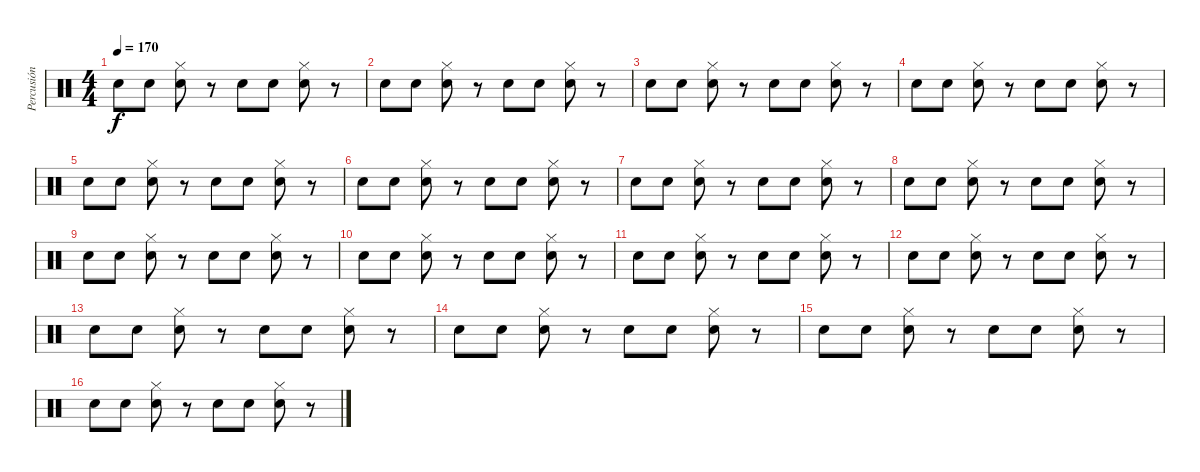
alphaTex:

\track ("Percusión" "Percusión") {instrument percussion}
\staff {score}
\articulation defaults
\ts (4 4)
\tempo 170
\clef neutral
\ks c "Electric Snare (hit)".8{dy f} "Electric Snare (hit)".8
("Hi-Hat (closed)" "Snare (hit) 2").8 r.8 "Electric Snare (hit)".8 "Electric Snare (hit)".8 ("Hi-Hat (closed)" "Snare (hit) 2").8 r.8 |
"Electric Snare (hit)".8 "Electric Snare (hit)".8 ("Hi-Hat (closed)" "Snare (hit) 2").8 r.8 "Electric Snare (hit)".8 "Electric Snare (hit)".8 ("Hi-Hat (closed)" "Snare (hit) 2").8 r.8 |
"Electric Snare (hit)".8 "Electric Snare (hit)".8 ("Hi-Hat (closed)" "Snare (hit) 2").8 r.8 "Electric Snare (hit)".8 "Electric Snare (hit)".8 ("Hi-Hat (closed)" "Snare (hit) 2").8 r.8 |
"Electric Snare (hit)".8 "Electric Snare (hit)".8 ("Hi-Hat (closed)" "Snare (hit) 2").8 r.8 "Electric Snare (hit)".8 "Electric Snare (hit)".8 ("Hi-Hat (closed)" "Snare (hit) 2").8 r.8 |
"Electric Snare (hit)".8 "Electric Snare (hit)".8 ("Hi-Hat (closed)" "Snare (hit) 2").8 r.8 "Electric Snare (hit)".8 "Electric Snare (hit)".8 ("Hi-Hat (closed)" "Snare (hit) 2").8 r.8 |
"Electric Snare (hit)".8 "Electric Snare (hit)".8 ("Hi-Hat (closed)" "Snare (hit) 2").8 r.8 "Electric Snare (hit)".8 "Electric Snare (hit)".8 ("Hi-Hat (closed)" "Snare (hit) 2").8 r.8 |
"Electric Snare (hit)".8 "Electric Snare (hit)".8 ("Hi-Hat (closed)" "Snare (hit) 2").8 r.8 "Electric Snare (hit)".8 "Electric Snare (hit)".8 ("Hi-Hat (closed)" "Snare (hit) 2").8 r.8 |
"Electric Snare (hit)".8 "Electric Snare (hit)".8 ("Hi-Hat (closed)" "Snare (hit) 2").8 r.8 "Electric Snare (hit)".8 "Electric Snare (hit)".8 ("Hi-Hat (closed)" "Snare (hit) 2").8 r.8 |
"Electric Snare (hit)".8 "Electric Snare (hit)".8 ("Hi-Hat (closed)" "Snare (hit) 2").8 r.8 "Electric Snare (hit)".8 "Electric Snare (hit)".8 ("Hi-Hat (closed)" "Snare (hit) 2").8 r.8 |
"Electric Snare (hit)".8 "Electric Snare (hit)".8 ("Hi-Hat (closed)" "Snare (hit) 2").8 r.8 "Electric Snare (hit)".8 "Electric Snare (hit)".8 ("Hi-Hat (closed)" "Snare (hit) 2").8 r.8 |
"Electric Snare (hit)".8 "Electric Snare (hit)".8 ("Hi-Hat (closed)" "Snare (hit) 2").8 r.8 "Electric Snare (hit)".8 "Electric Snare (hit)".8 ("Hi-Hat (closed)" "Snare (hit) 2").8 r.8 |
"Electric Snare (hit)".8 "Electric Snare (hit)".8 ("Hi-Hat (closed)" "Snare (hit) 2").8 r.8 "Electric Snare (hit)".8 "Electric Snare (hit)".8 ("Hi-Hat (closed)" "Snare (hit) 2").8 r.8 |
"Electric Snare (hit)".8 "Electric Snare (hit)".8 ("Hi-Hat (closed)" "Snare (hit) 2").8 r.8 "Electric Snare (hit)".8 "Electric Snare (hit)".8 ("Hi-Hat (closed)" "Snare (hit) 2").8 r.8 |
"Electric Snare (hit)".8 "Electric Snare (hit)".8 ("Hi-Hat (closed)" "Snare (hit) 2").8 r.8 "Electric Snare (hit)".8 "Electric Snare (hit)".8 ("Hi-Hat (closed)" "Snare (hit) 2").8 r.8 |
"Electric Snare (hit)".8 "Electric Snare (hit)".8 ("Hi-Hat (closed)" "Snare (hit) 2").8 r.8 "Electric Snare (hit)".8 "Electric Snare (hit)".8 ("Hi-Hat (closed)" "Snare (hit) 2").8 r.8 |
"Electric Snare (hit)".8 "Electric Snare (hit)".8 ("Hi-Hat (closed)" "Snare (hit) 2").8 r.8 "Electric Snare (hit)".8 "Electric Snare (hit)".8 ("Hi-Hat (closed)" "Snare (hit) 2").8 r.8
